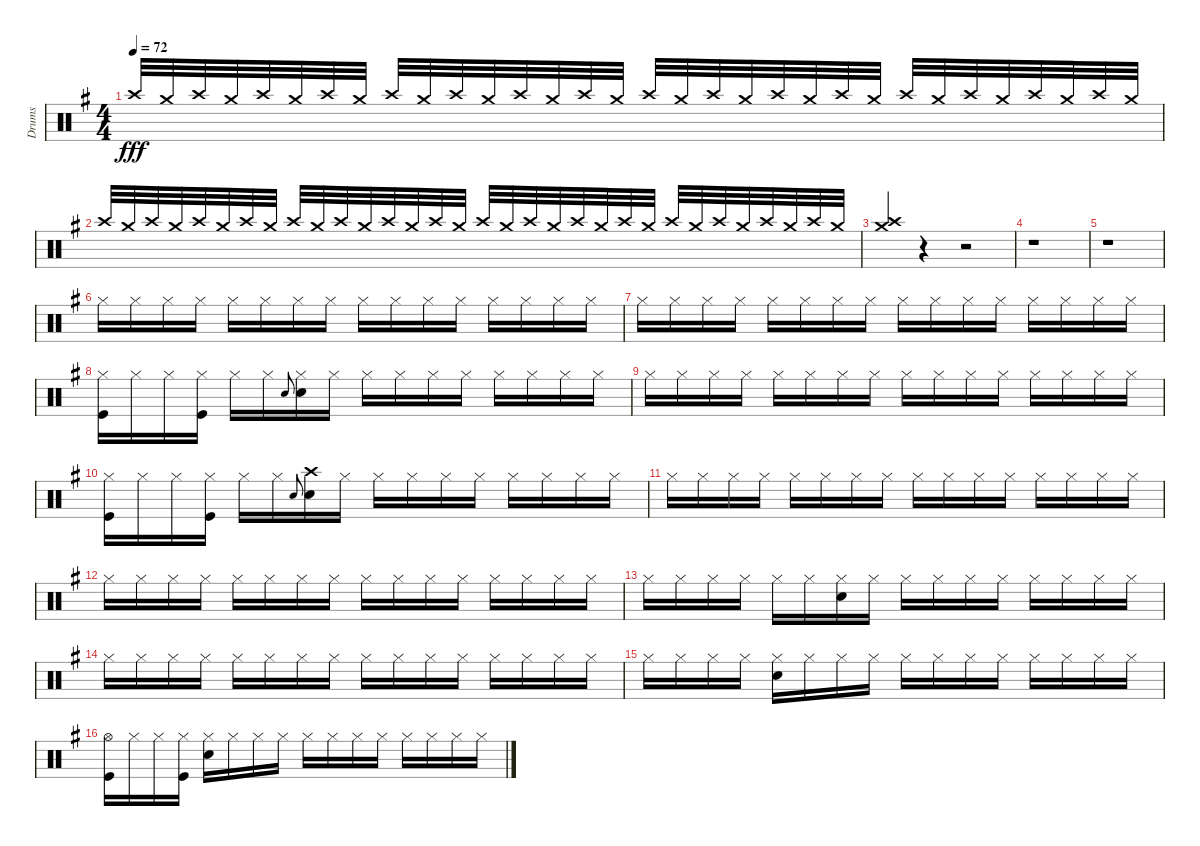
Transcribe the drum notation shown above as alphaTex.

\track ("Drums" "Drums") {instrument percussion}
\staff {score}
\articulation defaults
\ts (4 4)
\tempo 72
\clef neutral
\ks g "Crash high (hit)".32{dy fff beam Up} "Crash medium (hit)".32{beam Up} "Crash high (hit)".32{beam Up} "Crash medium (hit)".32{beam Up} "Crash high (hit)".32{beam Up} "Crash medium (hit)".32{beam Up} "Crash high (hit)".32{beam Up} "Crash medium (hit)".32{beam Up} "Crash high (hit)".32{beam Up} "Crash medium (hit)".32{beam Up} "Crash high (hit)".32{beam Up} "Crash medium (hit)".32{beam Up} "Crash high (hit)".32{beam Up} "Crash medium (hit)".32{beam Up} "Crash high (hit)".32{beam Up} "Crash medium (hit)".32{beam Up} "Crash high (hit)".32{beam Up} "Crash medium (hit)".32{beam Up} "Crash high (hit)".32{beam Up} "Crash medium (hit)".32{beam Up} "Crash high (hit)".32{beam Up} "Crash medium (hit)".32{beam Up} "Crash high (hit)".32{beam Up} "Crash medium (hit)".32{beam Up} "Crash high (hit)".32{beam Up} "Crash medium (hit)".32{beam Up} "Crash high (hit)".32{beam Up} "Crash medium (hit)".32{beam Up} "Crash high (hit)".32{beam Up} "Crash medium (hit)".32{beam Up} "Crash high (hit)".32{beam Up} "Crash medium (hit)".32{beam Up}
|
"Crash high (hit)".32{beam Up} "Crash medium (hit)".32{beam Up} "Crash high (hit)".32{beam Up} "Crash medium (hit)".32{beam Up} "Crash high (hit)".32{beam Up} "Crash medium (hit)".32{beam Up} "Crash high (hit)".32{beam Up} "Crash medium (hit)".32{beam Up} "Crash high (hit)".32{beam Up} "Crash medium (hit)".32{beam Up} "Crash high (hit)".32{beam Up} "Crash medium (hit)".32{beam Up} "Crash high (hit)".32{beam Up} "Crash medium (hit)".32{beam Up} "Crash high (hit)".32{beam Up} "Crash medium (hit)".32{beam Up} "Crash high (hit)".32{beam Up} "Crash medium (hit)".32{beam Up} "Crash high (hit)".32{beam Up} "Crash medium (hit)".32{beam Up} "Crash high (hit)".32{beam Up} "Crash medium (hit)".32{beam Up} "Crash high (hit)".32{beam Up} "Crash medium (hit)".32{beam Up} "Crash high (hit)".32{beam Up} "Crash medium (hit)".32{beam Up} "Crash high (hit)".32{beam Up} "Crash medium (hit)".32{beam Up} "Crash high (hit)".32{beam Up} "Crash medium (hit)".32{beam Up} "Crash high (hit)".32{beam Up} "Crash medium (hit)".32{beam Up} |
("Crash medium (hit)" "Crash high (hit)").4{beam Up} r.4 r.2 |
r.1 |
r.1 |
"Hi-Hat (closed)".16 "Hi-Hat (closed)".16 "Hi-Hat (closed)".16 "Hi-Hat (closed)".16 "Hi-Hat (closed)".16 "Hi-Hat (closed)".16 "Hi-Hat (closed)".16 "Hi-Hat (closed)".16 "Hi-Hat (closed)".16 "Hi-Hat (closed)".16 "Hi-Hat (closed)".16 "Hi-Hat (closed)".16 "Hi-Hat (closed)".16 "Hi-Hat (closed)".16 "Hi-Hat (closed)".16 "Hi-Hat (closed)".16 |
"Hi-Hat (closed)".16 "Hi-Hat (closed)".16 "Hi-Hat (closed)".16 "Hi-Hat (closed)".16 "Hi-Hat (closed)".16 "Hi-Hat (closed)".16 "Hi-Hat (closed)".16 "Hi-Hat (closed)".16 "Hi-Hat (closed)".16 "Hi-Hat (closed)".16 "Hi-Hat (closed)".16 "Hi-Hat (closed)".16 "Hi-Hat (closed)".16 "Hi-Hat (closed)".16 "Hi-Hat (closed)".16 "Hi-Hat (closed)".16 |
("Hi-Hat (closed)" "Kick (hit)").16 "Hi-Hat (closed)".16 "Hi-Hat (closed)".16 ("Hi-Hat (closed)" "Kick (hit)").16 "Hi-Hat (closed)".16 "Hi-Hat (closed)".16 "Snare (hit) 2".8{gr onbeat} ("Hi-Hat (closed)" "Snare (hit) 2").16 "Hi-Hat (closed)".16 "Hi-Hat (closed)".16 "Hi-Hat (closed)".16 "Hi-Hat (closed)".16 "Hi-Hat (closed)".16 "Hi-Hat (closed)".16 "Hi-Hat (closed)".16 "Hi-Hat (closed)".16 "Hi-Hat (closed)".16 |
"Hi-Hat (closed)".16 "Hi-Hat (closed)".16 "Hi-Hat (closed)".16 "Hi-Hat (closed)".16 "Hi-Hat (closed)".16 "Hi-Hat (closed)".16 "Hi-Hat (closed)".16 "Hi-Hat (closed)".16 "Hi-Hat (closed)".16 "Hi-Hat (closed)".16 "Hi-Hat (closed)".16 "Hi-Hat (closed)".16 "Hi-Hat (closed)".16 "Hi-Hat (closed)".16 "Hi-Hat (closed)".16 "Hi-Hat (closed)".16 |
("Hi-Hat (closed)" "Kick (hit)").16 "Hi-Hat (closed)".16 "Hi-Hat (closed)".16 ("Hi-Hat (closed)" "Kick (hit)").16 "Hi-Hat (closed)".16 "Hi-Hat (closed)".16 "Snare (hit) 2".8{gr onbeat} ("Crash high (hit)" "Snare (hit) 2").16 "Hi-Hat (closed)".16 "Hi-Hat (closed)".16 "Hi-Hat (closed)".16 "Hi-Hat (closed)".16 "Hi-Hat (closed)".16 "Hi-Hat (closed)".16 "Hi-Hat (closed)".16 "Hi-Hat (closed)".16 "Hi-Hat (closed)".16 |
"Hi-Hat (closed)".16 "Hi-Hat (closed)".16 "Hi-Hat (closed)".16 "Hi-Hat (closed)".16 "Hi-Hat (closed)".16 "Hi-Hat (closed)".16 "Hi-Hat (closed)".16 "Hi-Hat (closed)".16 "Hi-Hat (closed)".16 "Hi-Hat (closed)".16 "Hi-Hat (closed)".16 "Hi-Hat (closed)".16 "Hi-Hat (closed)".16 "Hi-Hat (closed)".16 "Hi-Hat (closed)".16 "Hi-Hat (closed)".16 |
"Hi-Hat (closed)".16 "Hi-Hat (closed)".16 "Hi-Hat (closed)".16 "Hi-Hat (closed)".16 "Hi-Hat (closed)".16 "Hi-Hat (closed)".16 "Hi-Hat (closed)".16 "Hi-Hat (closed)".16 "Hi-Hat (closed)".16 "Hi-Hat (closed)".16 "Hi-Hat (closed)".16 "Hi-Hat (closed)".16 "Hi-Hat (closed)".16 "Hi-Hat (closed)".16 "Hi-Hat (closed)".16 "Hi-Hat (closed)".16 |
"Hi-Hat (closed)".16 "Hi-Hat (closed)".16 "Hi-Hat (closed)".16 "Hi-Hat (closed)".16 "Hi-Hat (closed)".16 "Hi-Hat (closed)".16 ("Hi-Hat (closed)" "Snare (hit) 2").16 "Hi-Hat (closed)".16 "Hi-Hat (closed)".16 "Hi-Hat (closed)".16 "Hi-Hat (closed)".16 "Hi-Hat (closed)".16 "Hi-Hat (closed)".16 "Hi-Hat (closed)".16 "Hi-Hat (closed)".16 "Hi-Hat (closed)".16 |
"Hi-Hat (closed)".16 "Hi-Hat (closed)".16 "Hi-Hat (closed)".16 "Hi-Hat (closed)".16 "Hi-Hat (closed)".16 "Hi-Hat (closed)".16 "Hi-Hat (closed)".16 "Hi-Hat (closed)".16 "Hi-Hat (closed)".16 "Hi-Hat (closed)".16 "Hi-Hat (closed)".16 "Hi-Hat (closed)".16 "Hi-Hat (closed)".16 "Hi-Hat (closed)".16 "Hi-Hat (closed)".16 "Hi-Hat (closed)".16 |
"Hi-Hat (closed)".16 "Hi-Hat (closed)".16 "Hi-Hat (closed)".16 "Hi-Hat (closed)".16 ("Hi-Hat (closed)" "Snare (hit) 2").16 "Hi-Hat (closed)".16 "Hi-Hat (closed)".16 "Hi-Hat (closed)".16 "Hi-Hat (closed)".16 "Hi-Hat (closed)".16 "Hi-Hat (closed)".16 "Hi-Hat (closed)".16 "Hi-Hat (closed)".16 "Hi-Hat (closed)".16 "Hi-Hat (closed)".16 "Hi-Hat (closed)".16 |
("Hi-Hat (open)" "Kick (hit)").16 "Hi-Hat (closed)".16 "Hi-Hat (closed)".16 ("Hi-Hat (closed)" "Kick (hit)").16 ("Hi-Hat (closed)" "Snare (hit) 2").16 "Hi-Hat (closed)".16 "Hi-Hat (closed)".16 "Hi-Hat (closed)".16 "Hi-Hat (closed)".16 "Hi-Hat (closed)".16 "Hi-Hat (closed)".16 "Hi-Hat (closed)".16 "Hi-Hat (closed)".16 "Hi-Hat (closed)".16 "Hi-Hat (closed)".16 "Hi-Hat (closed)".16
